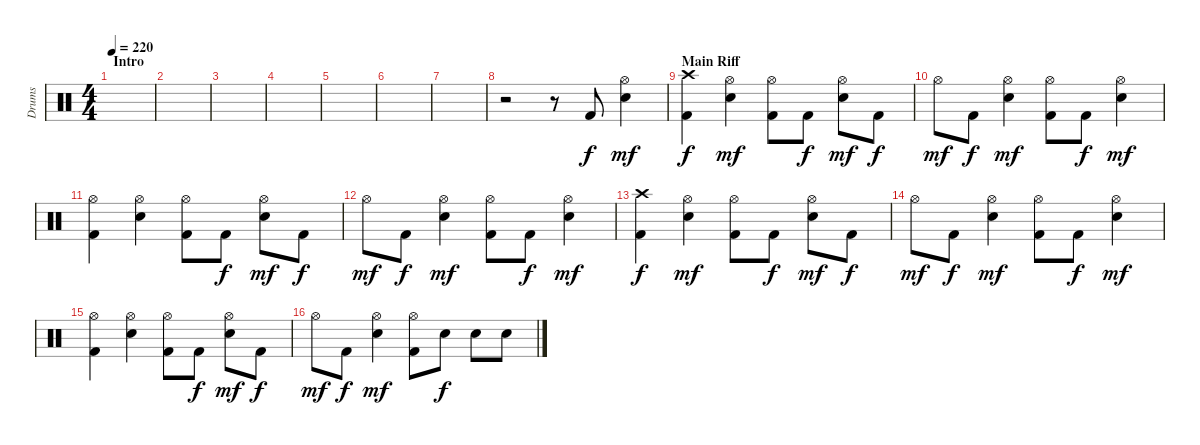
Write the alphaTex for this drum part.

\track ("Drums" "Drums") {instrument percussion}
\staff {score}
\articulation defaults
\ts (4 4)
\section ("" "Intro")
\tempo 220
\clef neutral
\ks c
|
|
|
|
|
|
|
r.2 r.8 "Kick (hit) 2".8 ("Hi-Hat (open)" "Snare (hit) 2").4{dy mf} |
\section ("" "Main Riff")
("Crash high (hit)" "Kick (hit) 2").4{dy f} ("Hi-Hat (open)" "Snare (hit) 2").4{dy mf} ("Hi-Hat (open)" "Kick (hit) 2").8 "Kick (hit) 2".8{dy f} ("Hi-Hat (open)" "Snare (hit) 2").8{dy mf} "Kick (hit) 2".8{dy f} |
"Hi-Hat (open)".8{dy mf} "Kick (hit) 2".8{dy f} ("Hi-Hat (open)" "Snare (hit) 2").4{dy mf} ("Hi-Hat (open)" "Kick (hit) 2").8 "Kick (hit) 2".8{dy f} ("Hi-Hat (open)" "Snare (hit) 2").4{dy mf} |
("Hi-Hat (open)" "Kick (hit) 2").4 ("Hi-Hat (open)" "Snare (hit) 2").4 ("Hi-Hat (open)" "Kick (hit) 2").8 "Kick (hit) 2".8{dy f} ("Hi-Hat (open)" "Snare (hit) 2").8{dy mf} "Kick (hit) 2".8{dy f} |
"Hi-Hat (open)".8{dy mf} "Kick (hit) 2".8{dy f} ("Hi-Hat (open)" "Snare (hit) 2").4{dy mf} ("Hi-Hat (open)" "Kick (hit) 2").8 "Kick (hit) 2".8{dy f} ("Hi-Hat (open)" "Snare (hit) 2").4{dy mf} |
("Crash high (hit)" "Kick (hit) 2").4{dy f} ("Hi-Hat (open)" "Snare (hit) 2").4{dy mf} ("Hi-Hat (open)" "Kick (hit) 2").8 "Kick (hit) 2".8{dy f} ("Hi-Hat (open)" "Snare (hit) 2").8{dy mf} "Kick (hit) 2".8{dy f} |
"Hi-Hat (open)".8{dy mf} "Kick (hit) 2".8{dy f} ("Hi-Hat (open)" "Snare (hit) 2").4{dy mf} ("Hi-Hat (open)" "Kick (hit) 2").8 "Kick (hit) 2".8{dy f} ("Hi-Hat (open)" "Snare (hit) 2").4{dy mf} |
("Hi-Hat (open)" "Kick (hit) 2").4 ("Hi-Hat (open)" "Snare (hit) 2").4 ("Hi-Hat (open)" "Kick (hit) 2").8 "Kick (hit) 2".8{dy f} ("Hi-Hat (open)" "Snare (hit) 2").8{dy mf} "Kick (hit) 2".8{dy f} |
"Hi-Hat (open)".8{dy mf} "Kick (hit) 2".8{dy f} ("Hi-Hat (open)" "Snare (hit) 2").4{dy mf} ("Hi-Hat (open)" "Kick (hit) 2").8 "Snare (hit) 2".8{dy f} "Snare (hit) 2".8 "Snare (hit) 2".8
